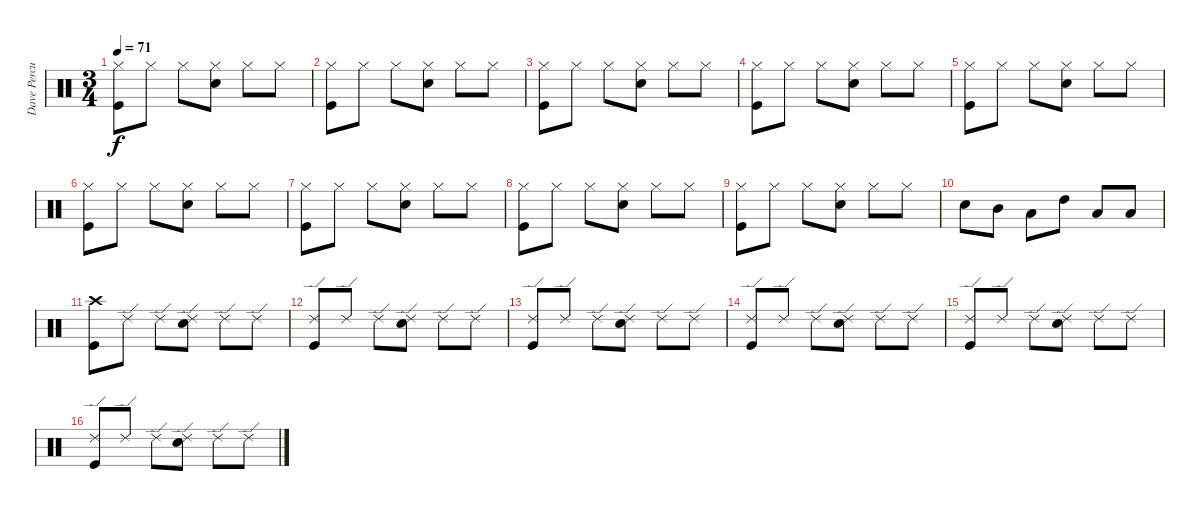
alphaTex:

\track ("Dave Percussions" "Dave Percu") {instrument percussion}
\staff {score}
\articulation defaults
\ts (3 4)
\tempo 71
\clef neutral
\ks c
("Hi-Hat (closed)" "Kick (hit)").8{dy f} "Hi-Hat (closed)".8 "Hi-Hat (closed)".8 ("Hi-Hat (closed)" "Snare (hit) 2").8 "Hi-Hat (closed)".8 "Hi-Hat (closed)".8 |
("Hi-Hat (closed)" "Kick (hit)").8 "Hi-Hat (closed)".8 "Hi-Hat (closed)".8 ("Hi-Hat (closed)" "Snare (hit) 2").8 "Hi-Hat (closed)".8 "Hi-Hat (closed)".8 |
("Hi-Hat (closed)" "Kick (hit)").8 "Hi-Hat (closed)".8 "Hi-Hat (closed)".8 ("Hi-Hat (closed)" "Snare (hit) 2").8 "Hi-Hat (closed)".8 "Hi-Hat (closed)".8 |
("Hi-Hat (closed)" "Kick (hit)").8 "Hi-Hat (closed)".8 "Hi-Hat (closed)".8 ("Hi-Hat (closed)" "Snare (hit) 2").8 "Hi-Hat (closed)".8 "Hi-Hat (closed)".8 |
("Hi-Hat (closed)" "Kick (hit)").8 "Hi-Hat (closed)".8 "Hi-Hat (closed)".8 ("Hi-Hat (closed)" "Snare (hit) 2").8 "Hi-Hat (closed)".8 "Hi-Hat (closed)".8 |
("Hi-Hat (closed)" "Kick (hit)").8 "Hi-Hat (closed)".8 "Hi-Hat (closed)".8 ("Hi-Hat (closed)" "Snare (hit) 2").8 "Hi-Hat (closed)".8 "Hi-Hat (closed)".8 |
("Hi-Hat (closed)" "Kick (hit)").8 "Hi-Hat (closed)".8 "Hi-Hat (closed)".8 ("Hi-Hat (closed)" "Snare (hit) 2").8 "Hi-Hat (closed)".8 "Hi-Hat (closed)".8 |
("Hi-Hat (closed)" "Kick (hit)").8 "Hi-Hat (closed)".8 "Hi-Hat (closed)".8 ("Hi-Hat (closed)" "Snare (hit) 2").8 "Hi-Hat (closed)".8 "Hi-Hat (closed)".8 |
("Hi-Hat (closed)" "Kick (hit)").8 "Hi-Hat (closed)".8 "Hi-Hat (closed)".8 ("Hi-Hat (closed)" "Snare (hit) 2").8 "Hi-Hat (closed)".8 "Hi-Hat (closed)".8 |
"Snare (hit) 2".8 "Mid Tom (hit)".8 "Low Tom (hit)".8 "High Tom (hit)".8 "Low Floor Tom (hit)".8 "Low Floor Tom (hit)".8 |
("Crash high (hit)" "Kick (hit)").8 "Ride (edge) 2".8 "Ride (edge) 2".8 ("Ride (edge) 2" "Snare (hit) 2").8 "Ride (edge) 2".8 "Ride (edge) 2".8 |
("Ride (edge) 2" "Kick (hit)").8 "Ride (edge) 2".8 "Ride (edge) 2".8 ("Ride (edge) 2" "Snare (hit) 2").8 "Ride (edge) 2".8 "Ride (edge) 2".8 |
("Ride (edge) 2" "Kick (hit)").8 "Ride (edge) 2".8 "Ride (edge) 2".8 ("Ride (edge) 2" "Snare (hit) 2").8 "Ride (edge) 2".8 "Ride (edge) 2".8 |
("Ride (edge) 2" "Kick (hit)").8 "Ride (edge) 2".8 "Ride (edge) 2".8 ("Ride (edge) 2" "Snare (hit) 2").8 "Ride (edge) 2".8 "Ride (edge) 2".8 |
("Ride (edge) 2" "Kick (hit)").8 "Ride (edge) 2".8 "Ride (edge) 2".8 ("Ride (edge) 2" "Snare (hit) 2").8 "Ride (edge) 2".8 "Ride (edge) 2".8 |
("Ride (edge) 2" "Kick (hit)").8 "Ride (edge) 2".8 "Ride (edge) 2".8 ("Ride (edge) 2" "Snare (hit) 2").8 "Ride (edge) 2".8 "Ride (edge) 2".8
